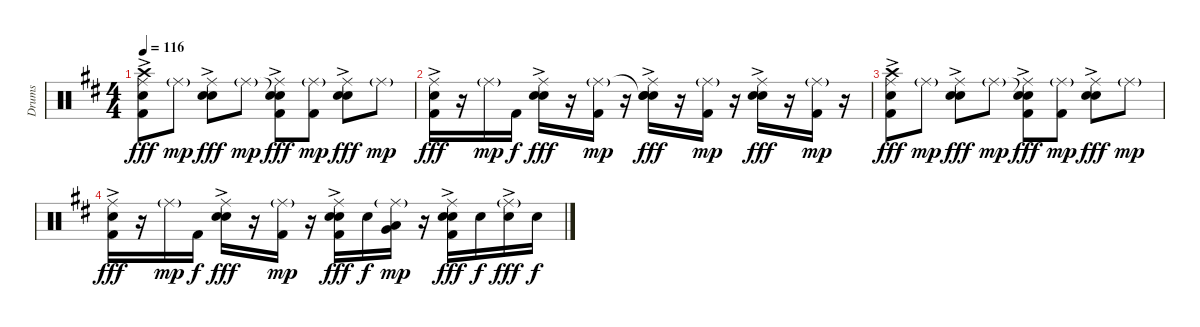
\track ("Drums" "Drums") {instrument percussion}
\staff {score}
\articulation defaults
\ts (4 4)
\tempo 116
\clef neutral
\ks d
("Crash high (hit)" "Ride (middle)" "Hand Clap (hit)"{ac} "Kick (hit) 2").8{dy fff} "Ride (middle)"{g}.8{dy mp} ("Ride (middle)" "Hand Clap (hit)"{ac} "Snare (hit) 2").8{dy fff} "Ride (middle)"{g}.8{dy mp} ("Snare (hit)"{t} "Ride (middle)" "Hand Clap (hit)"{ac} "Kick (hit) 2").8{dy fff} ("Ride (middle)"{g} "Kick (hit) 2").8{dy mp} ("Ride (middle)" "Hand Clap (hit)"{ac} "Snare (hit) 2").8{dy fff} "Ride (middle)"{g}.8{dy mp} |
("Ride (middle)" "Hand Clap (hit)"{ac} "Kick (hit) 2").16{dy fff} r.16 "Ride (middle)"{g}.16{dy mp} "Kick (hit) 2".16{dy f} ("Ride (middle)" "Hand Clap (hit)"{ac} "Snare (hit) 2").16{dy fff} r.16 ("Ride (middle)"{g} "Kick (hit) 2").16{dy mp} r.16 ("Snare (hit)"{t} "Ride (middle)" "Hand Clap (hit)"{ac} "Snare (hit) 2").16{dy fff} r.16 ("Ride (middle)"{g} "Kick (hit) 2").16{dy mp} r.16 ("Ride (middle)" "Hand Clap (hit)"{ac} "Snare (hit) 2").16{dy fff} r.16 ("Ride (middle)"{g} "Kick (hit) 2").16{dy mp} r.16 |
("Crash high (hit)" "Ride (middle)" "Hand Clap (hit)"{ac} "Kick (hit) 2").8{dy fff} "Ride (middle)"{g}.8{dy mp} ("Ride (middle)" "Hand Clap (hit)"{ac} "Snare (hit) 2").8{dy fff} "Ride (middle)"{g}.8{dy mp} ("Snare (hit)"{t} "Ride (middle)" "Hand Clap (hit)"{ac} "Kick (hit) 2").8{dy fff} ("Ride (middle)"{g} "Kick (hit) 2").8{dy mp} ("Ride (middle)" "Hand Clap (hit)"{ac} "Snare (hit) 2").8{dy fff} "Ride (middle)"{g}.8{dy mp} |
("Ride (middle)" "Hand Clap (hit)"{ac} "Kick (hit) 2").16{dy fff} r.16 "Ride (middle)"{g}.16{dy mp} "Kick (hit) 2".16{dy f} ("Ride (middle)" "Hand Clap (hit)"{ac} "Snare (hit) 2").16{dy fff} r.16 ("Ride (middle)"{g} "Kick (hit) 2").16{dy mp} r.16 ("Ride (middle)" "Hand Clap (hit)"{ac} "Snare (hit) 2" "Kick (hit) 2").16{dy fff} "Snare (hit) 2".16{dy f} ("Ride (middle)"{g} "Low Tom (hit)" "Very Low Tom (hit)").16{dy mp} r.16 ("Ride (middle)" "Hand Clap (hit)"{ac} "Snare (hit) 2"{ac} "Kick (hit) 2").16{dy fff} "Snare (hit) 2".16{dy f} ("Ride (middle)"{g} "Snare (hit) 2"{ac}).16{dy fff} "Snare (hit) 2".16{dy f}
